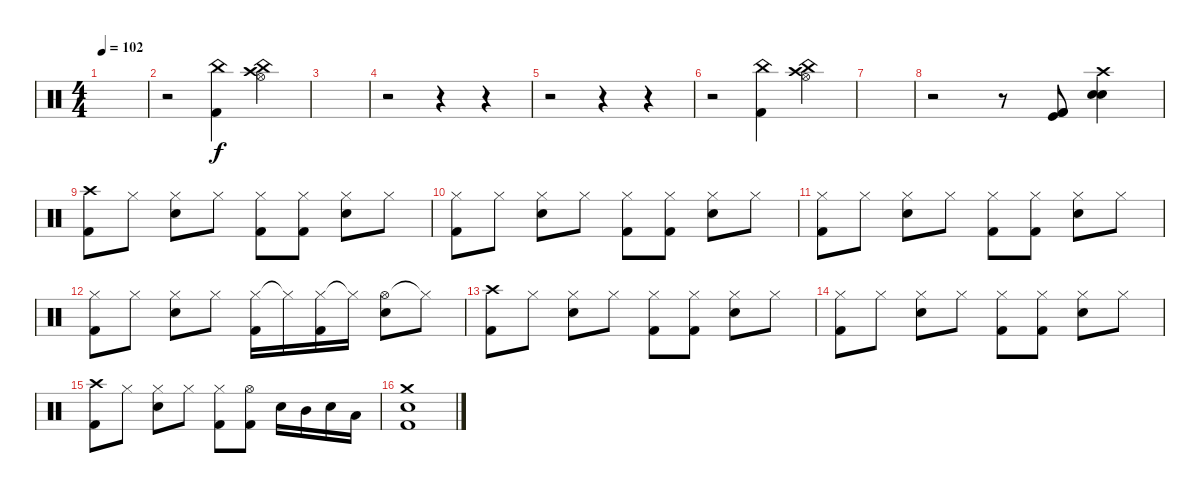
\track "" {instrument percussion}
\staff {score}
\articulation defaults
\ts (4 4)
\tempo 102
\clef neutral
\ks c
|
r.2 ("China (hit)" "Kick (hit) 2").4 ("China (hit)" "Crash high (hit)" "Hi-Hat (open)").4 |
|
r.2 r.4 r.4 |
r.2 r.4 r.4 |
r.2{txt ""} ("China (hit)" "Kick (hit) 2").4 ("China (hit)" "Crash high (hit)" "Hi-Hat (open)").4 |
|
r.2 r.8 ("Kick (hit) 2" "Kick (hit)" "Kick (hit) 2").8 ("Crash high (hit)" "Snare (hit) 2" "Snare (hit) 2").4 |
("Crash high (hit)" "Kick (hit) 2").8 "Hi-Hat (closed)".8 ("Hi-Hat (closed)" "Snare (hit) 2").8 "Hi-Hat (closed)".8 ("Hi-Hat (closed)" "Kick (hit) 2").8 ("Hi-Hat (closed)" "Kick (hit) 2").8 ("Hi-Hat (closed)" "Snare (hit) 2").8 "Hi-Hat (closed)".8 |
("Hi-Hat (closed)" "Kick (hit) 2").8 "Hi-Hat (closed)".8 ("Hi-Hat (closed)" "Snare (hit) 2").8 "Hi-Hat (closed)".8 ("Hi-Hat (closed)" "Kick (hit) 2").8 ("Hi-Hat (closed)" "Kick (hit) 2").8 ("Hi-Hat (closed)" "Snare (hit) 2").8 "Hi-Hat (closed)".8 |
("Hi-Hat (closed)" "Kick (hit) 2").8 "Hi-Hat (closed)".8 ("Hi-Hat (closed)" "Snare (hit) 2").8 "Hi-Hat (closed)".8 ("Hi-Hat (closed)" "Kick (hit) 2").8 ("Hi-Hat (closed)" "Kick (hit) 2").8 ("Hi-Hat (closed)" "Snare (hit) 2").8 "Hi-Hat (closed)".8 |
("Hi-Hat (closed)" "Kick (hit) 2").8 "Hi-Hat (closed)".8 ("Hi-Hat (closed)" "Snare (hit) 2").8 "Hi-Hat (closed)".8 ("Hi-Hat (closed)" "Kick (hit) 2").16 "Hi-Hat (closed)"{t}.16 ("Hi-Hat (closed)" "Kick (hit) 2").16 "Hi-Hat (closed)"{t}.16 ("Hi-Hat (open)" "Snare (hit) 2").8 "Hi-Hat (closed)"{t}.8 |
("Crash high (hit)" "Kick (hit) 2").8 "Hi-Hat (closed)".8 ("Hi-Hat (closed)" "Snare (hit) 2").8 "Hi-Hat (closed)".8 ("Hi-Hat (closed)" "Kick (hit) 2").8 ("Hi-Hat (closed)" "Kick (hit) 2").8 ("Hi-Hat (closed)" "Snare (hit) 2").8 "Hi-Hat (closed)".8 |
("Hi-Hat (closed)" "Kick (hit) 2").8 "Hi-Hat (closed)".8 ("Hi-Hat (closed)" "Snare (hit) 2").8 "Hi-Hat (closed)".8 ("Hi-Hat (closed)" "Kick (hit) 2").8 ("Hi-Hat (closed)" "Kick (hit) 2").8 ("Hi-Hat (closed)" "Snare (hit) 2").8 "Hi-Hat (closed)".8 |
("Crash high (hit)" "Kick (hit) 2").8 "Hi-Hat (closed)".8 ("Snare (hit) 2" "Hi-Hat (closed)").8 "Hi-Hat (closed)".8 ("Hi-Hat (closed)" "Kick (hit) 2").8 ("Hi-Hat (open)" "Kick (hit) 2").8 "Snare (hit) 2".16 "Mid Tom (hit)".16 "Snare (hit) 2".16 "Low Tom (hit)".16 |
("Snare (hit) 2" "Crash medium (hit)" "Kick (hit) 2").1
